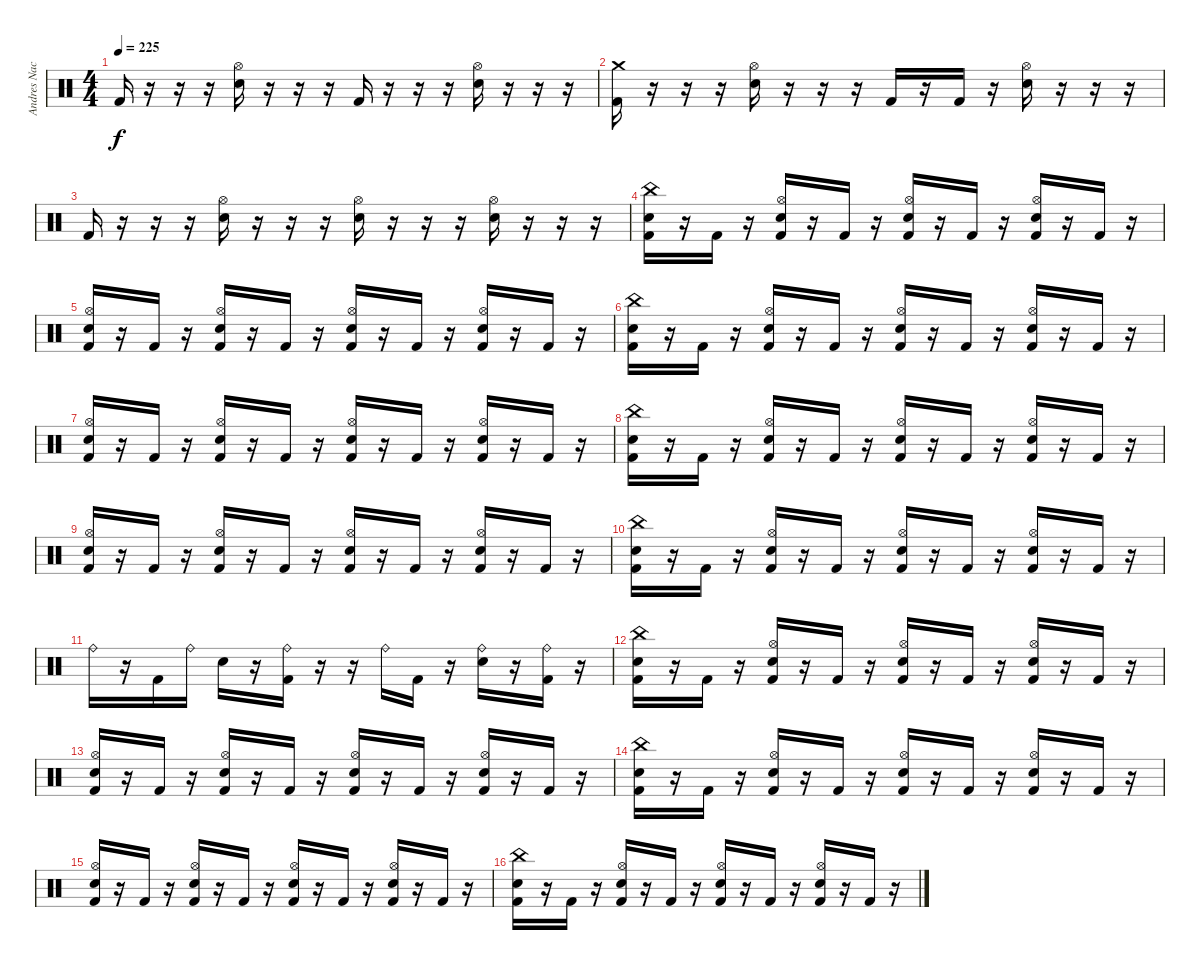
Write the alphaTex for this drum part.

\track ("Andres Nacrur" "Andres Nac") {instrument percussion}
\staff {score}
\articulation defaults
\ts (4 4)
\tempo 225
\clef neutral
\ks c "Kick (hit) 2".16{dy f}
r.16 r.16 r.16 ("Hi-Hat (open)" "Snare (hit) 2").16 r.16 r.16 r.16 "Kick (hit) 2".16 r.16 r.16 r.16 ("Hi-Hat (open)" "Snare (hit) 2").16 r.16 r.16 r.16 |
("Crash medium (hit)" "Kick (hit) 2").16 r.16 r.16 r.16 ("Hi-Hat (open)" "Snare (hit) 2").16 r.16 r.16 r.16 "Kick (hit) 2".16 r.16 "Kick (hit) 2".16 r.16 ("Hi-Hat (open)" "Snare (hit) 2").16 r.16 r.16 r.16 |
"Kick (hit) 2".16 r.16 r.16 r.16 ("Hi-Hat (open)" "Snare (hit) 2").16 r.16 r.16 r.16 ("Hi-Hat (open)" "Snare (hit) 2").16 r.16 r.16 r.16 ("Hi-Hat (open)" "Snare (hit) 2").16 r.16 r.16 r.16 |
("China (hit)" "Snare (hit) 2" "Kick (hit) 2").16 r.16 "Kick (hit) 2".16 r.16 ("Hi-Hat (open)" "Snare (hit) 2" "Kick (hit) 2").16 r.16 "Kick (hit) 2".16 r.16 ("Hi-Hat (open)" "Snare (hit) 2" "Kick (hit) 2").16 r.16 "Kick (hit) 2".16 r.16 ("Hi-Hat (open)" "Snare (hit) 2" "Kick (hit) 2").16 r.16 "Kick (hit) 2".16 r.16 |
("Hi-Hat (open)" "Snare (hit) 2" "Kick (hit) 2").16 r.16 "Kick (hit) 2".16 r.16 ("Hi-Hat (open)" "Snare (hit) 2" "Kick (hit) 2").16 r.16 "Kick (hit) 2".16 r.16 ("Hi-Hat (open)" "Snare (hit) 2" "Kick (hit) 2").16 r.16 "Kick (hit) 2".16 r.16 ("Hi-Hat (open)" "Snare (hit) 2" "Kick (hit) 2").16 r.16 "Kick (hit) 2".16 r.16 |
("China (hit)" "Snare (hit) 2" "Kick (hit) 2").16 r.16 "Kick (hit) 2".16 r.16 ("Hi-Hat (open)" "Snare (hit) 2" "Kick (hit) 2").16 r.16 "Kick (hit) 2".16 r.16 ("Hi-Hat (open)" "Snare (hit) 2" "Kick (hit) 2").16 r.16 "Kick (hit) 2".16 r.16 ("Hi-Hat (open)" "Snare (hit) 2" "Kick (hit) 2").16 r.16 "Kick (hit) 2".16 r.16 |
("Hi-Hat (open)" "Snare (hit) 2" "Kick (hit) 2").16 r.16 "Kick (hit) 2".16 r.16 ("Hi-Hat (open)" "Snare (hit) 2" "Kick (hit) 2").16 r.16 "Kick (hit) 2".16 r.16 ("Hi-Hat (open)" "Snare (hit) 2" "Kick (hit) 2").16 r.16 "Kick (hit) 2".16 r.16 ("Hi-Hat (open)" "Snare (hit) 2" "Kick (hit) 2").16 r.16 "Kick (hit) 2".16 r.16 |
("China (hit)" "Snare (hit) 2" "Kick (hit) 2").16 r.16 "Kick (hit) 2".16 r.16 ("Hi-Hat (open)" "Snare (hit) 2" "Kick (hit) 2").16 r.16 "Kick (hit) 2".16 r.16 ("Hi-Hat (open)" "Snare (hit) 2" "Kick (hit) 2").16 r.16 "Kick (hit) 2".16 r.16 ("Hi-Hat (open)" "Snare (hit) 2" "Kick (hit) 2").16 r.16 "Kick (hit) 2".16 r.16 |
("Hi-Hat (open)" "Snare (hit) 2" "Kick (hit) 2").16 r.16 "Kick (hit) 2".16 r.16 ("Hi-Hat (open)" "Snare (hit) 2" "Kick (hit) 2").16 r.16 "Kick (hit) 2".16 r.16 ("Hi-Hat (open)" "Snare (hit) 2" "Kick (hit) 2").16 r.16 "Kick (hit) 2".16 r.16 ("Hi-Hat (open)" "Snare (hit) 2" "Kick (hit) 2").16 r.16 "Kick (hit) 2".16 r.16 |
("China (hit)" "Snare (hit) 2" "Kick (hit) 2").16 r.16 "Kick (hit) 2".16 r.16 ("Hi-Hat (open)" "Snare (hit) 2" "Kick (hit) 2").16 r.16 "Kick (hit) 2".16 r.16 ("Hi-Hat (open)" "Snare (hit) 2" "Kick (hit) 2").16 r.16 "Kick (hit) 2".16 r.16 ("Hi-Hat (open)" "Snare (hit) 2" "Kick (hit) 2").16 r.16 "Kick (hit) 2".16 r.16 |
"Ride (bell)".16 r.16 "Kick (hit) 2".16 "Ride (bell)".16 "Snare (hit) 2".16 r.16 ("Ride (bell)" "Kick (hit) 2").16 r.16 r.16 "Ride (bell)".16 "Kick (hit) 2".16 r.16 ("Ride (bell)" "Snare (hit) 2").16 r.16 ("Ride (bell)" "Kick (hit) 2").16 r.16 |
("China (hit)" "Snare (hit) 2" "Kick (hit) 2").16 r.16 "Kick (hit) 2".16 r.16 ("Hi-Hat (open)" "Snare (hit) 2" "Kick (hit) 2").16 r.16 "Kick (hit) 2".16 r.16 ("Hi-Hat (open)" "Snare (hit) 2" "Kick (hit) 2").16 r.16 "Kick (hit) 2".16 r.16 ("Hi-Hat (open)" "Snare (hit) 2" "Kick (hit) 2").16 r.16 "Kick (hit) 2".16 r.16 |
("Hi-Hat (open)" "Snare (hit) 2" "Kick (hit) 2").16 r.16 "Kick (hit) 2".16 r.16 ("Hi-Hat (open)" "Snare (hit) 2" "Kick (hit) 2").16 r.16 "Kick (hit) 2".16 r.16 ("Hi-Hat (open)" "Snare (hit) 2" "Kick (hit) 2").16 r.16 "Kick (hit) 2".16 r.16 ("Hi-Hat (open)" "Snare (hit) 2" "Kick (hit) 2").16 r.16 "Kick (hit) 2".16 r.16 |
("China (hit)" "Snare (hit) 2" "Kick (hit) 2").16 r.16 "Kick (hit) 2".16 r.16 ("Hi-Hat (open)" "Snare (hit) 2" "Kick (hit) 2").16 r.16 "Kick (hit) 2".16 r.16 ("Hi-Hat (open)" "Snare (hit) 2" "Kick (hit) 2").16 r.16 "Kick (hit) 2".16 r.16 ("Hi-Hat (open)" "Snare (hit) 2" "Kick (hit) 2").16 r.16 "Kick (hit) 2".16 r.16 |
("Hi-Hat (open)" "Snare (hit) 2" "Kick (hit) 2").16 r.16 "Kick (hit) 2".16 r.16 ("Hi-Hat (open)" "Snare (hit) 2" "Kick (hit) 2").16 r.16 "Kick (hit) 2".16 r.16 ("Hi-Hat (open)" "Snare (hit) 2" "Kick (hit) 2").16 r.16 "Kick (hit) 2".16 r.16 ("Hi-Hat (open)" "Snare (hit) 2" "Kick (hit) 2").16 r.16 "Kick (hit) 2".16 r.16 |
("China (hit)" "Snare (hit) 2" "Kick (hit) 2").16 r.16 "Kick (hit) 2".16 r.16 ("Hi-Hat (open)" "Snare (hit) 2" "Kick (hit) 2").16 r.16 "Kick (hit) 2".16 r.16 ("Hi-Hat (open)" "Snare (hit) 2" "Kick (hit) 2").16 r.16 "Kick (hit) 2".16 r.16 ("Hi-Hat (open)" "Snare (hit) 2" "Kick (hit) 2").16 r.16 "Kick (hit) 2".16 r.16
